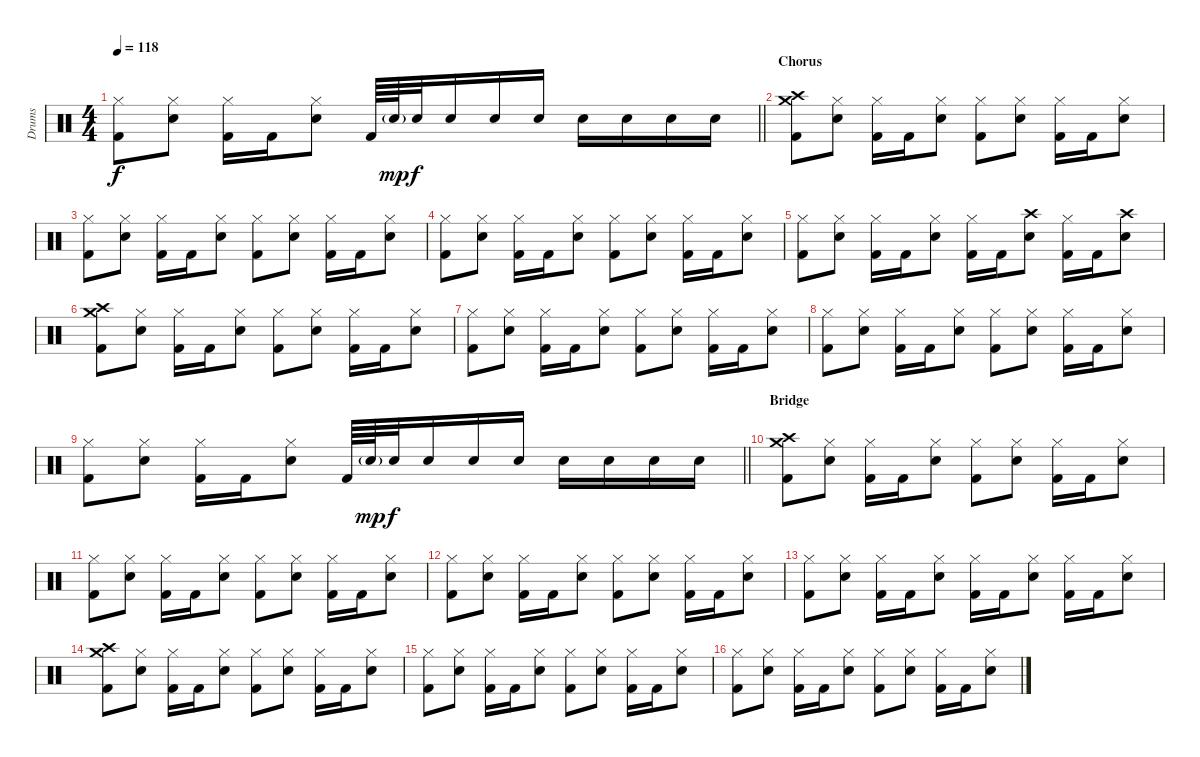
\track ("Drums" "Drums") {instrument percussion}
\staff {score}
\articulation defaults
\ts (4 4)
\tempo 118
\clef neutral
\barLineRight lightlight
\ks c
("Hi-Hat (closed)" "Kick (hit) 2").8{dy f} ("Hi-Hat (closed)" "Electric Snare (hit)").8 ("Hi-Hat (closed)" "Kick (hit) 2").16 "Kick (hit) 2".16 ("Hi-Hat (closed)" "Electric Snare (hit)").8 "Kick (hit) 2".64 "Electric Snare (hit)"{g}.64{dy mp} "Electric Snare (hit)".32{dy f} "Electric Snare (hit)".16 "Electric Snare (hit)".16 "Electric Snare (hit)".16 "Electric Snare (hit)".16 "Electric Snare (hit)".16 "Electric Snare (hit)".16 "Electric Snare (hit)".16 |
\section ("" "Chorus")
("Crash medium (hit)" "Crash high (hit)" "Kick (hit) 2").8 ("Hi-Hat (closed)" "Electric Snare (hit)").8 ("Hi-Hat (closed)" "Kick (hit) 2").16 "Kick (hit) 2".16 ("Hi-Hat (closed)" "Electric Snare (hit)").8 ("Hi-Hat (closed)" "Kick (hit) 2").8 ("Hi-Hat (closed)" "Electric Snare (hit)").8 ("Hi-Hat (closed)" "Kick (hit) 2").16 "Kick (hit) 2".16 ("Hi-Hat (closed)" "Electric Snare (hit)").8 |
("Hi-Hat (closed)" "Kick (hit) 2").8 ("Hi-Hat (closed)" "Electric Snare (hit)").8 ("Hi-Hat (closed)" "Kick (hit) 2").16 "Kick (hit) 2".16 ("Hi-Hat (closed)" "Electric Snare (hit)").8 ("Hi-Hat (closed)" "Kick (hit) 2").8 ("Hi-Hat (closed)" "Electric Snare (hit)").8 ("Hi-Hat (closed)" "Kick (hit) 2").16 "Kick (hit) 2".16 ("Hi-Hat (closed)" "Electric Snare (hit)").8 |
("Hi-Hat (closed)" "Kick (hit) 2").8 ("Hi-Hat (closed)" "Electric Snare (hit)").8 ("Hi-Hat (closed)" "Kick (hit) 2").16 "Kick (hit) 2".16 ("Hi-Hat (closed)" "Electric Snare (hit)").8 ("Hi-Hat (closed)" "Kick (hit) 2").8 ("Hi-Hat (closed)" "Electric Snare (hit)").8 ("Hi-Hat (closed)" "Kick (hit) 2").16 "Kick (hit) 2".16 ("Hi-Hat (closed)" "Electric Snare (hit)").8 |
("Hi-Hat (closed)" "Kick (hit) 2").8 ("Hi-Hat (closed)" "Electric Snare (hit)").8 ("Hi-Hat (closed)" "Kick (hit) 2").16 "Kick (hit) 2".16 ("Hi-Hat (closed)" "Electric Snare (hit)").8 ("Hi-Hat (closed)" "Kick (hit) 2").16 "Kick (hit) 2".16 ("Crash high (hit)" "Electric Snare (hit)").8 ("Hi-Hat (closed)" "Kick (hit) 2").16 "Kick (hit) 2".16 ("Crash high (hit)" "Electric Snare (hit)").8 |
("Crash medium (hit)" "Crash high (hit)" "Kick (hit) 2").8 ("Hi-Hat (closed)" "Electric Snare (hit)").8 ("Hi-Hat (closed)" "Kick (hit) 2").16 "Kick (hit) 2".16 ("Hi-Hat (closed)" "Electric Snare (hit)").8 ("Hi-Hat (closed)" "Kick (hit) 2").8 ("Hi-Hat (closed)" "Electric Snare (hit)").8 ("Hi-Hat (closed)" "Kick (hit) 2").16 "Kick (hit) 2".16 ("Hi-Hat (closed)" "Electric Snare (hit)").8 |
("Hi-Hat (closed)" "Kick (hit) 2").8 ("Hi-Hat (closed)" "Electric Snare (hit)").8 ("Hi-Hat (closed)" "Kick (hit) 2").16 "Kick (hit) 2".16 ("Hi-Hat (closed)" "Electric Snare (hit)").8 ("Hi-Hat (closed)" "Kick (hit) 2").8 ("Hi-Hat (closed)" "Electric Snare (hit)").8 ("Hi-Hat (closed)" "Kick (hit) 2").16 "Kick (hit) 2".16 ("Hi-Hat (closed)" "Electric Snare (hit)").8 |
("Hi-Hat (closed)" "Kick (hit) 2").8 ("Hi-Hat (closed)" "Electric Snare (hit)").8 ("Hi-Hat (closed)" "Kick (hit) 2").16 "Kick (hit) 2".16 ("Hi-Hat (closed)" "Electric Snare (hit)").8 ("Hi-Hat (closed)" "Kick (hit) 2").8 ("Hi-Hat (closed)" "Electric Snare (hit)").8 ("Hi-Hat (closed)" "Kick (hit) 2").16 "Kick (hit) 2".16 ("Hi-Hat (closed)" "Electric Snare (hit)").8 |
\barLineRight lightlight
("Hi-Hat (closed)" "Kick (hit) 2").8 ("Hi-Hat (closed)" "Electric Snare (hit)").8 ("Hi-Hat (closed)" "Kick (hit) 2").16 "Kick (hit) 2".16 ("Hi-Hat (closed)" "Electric Snare (hit)").8 "Kick (hit) 2".64 "Electric Snare (hit)"{g}.64{dy mp} "Electric Snare (hit)".32{dy f} "Electric Snare (hit)".16 "Electric Snare (hit)".16 "Electric Snare (hit)".16 "Electric Snare (hit)".16 "Electric Snare (hit)".16 "Electric Snare (hit)".16 "Electric Snare (hit)".16 |
\section ("" "Bridge")
("Crash medium (hit)" "Crash high (hit)" "Kick (hit) 2").8 ("Hi-Hat (closed)" "Electric Snare (hit)").8 ("Hi-Hat (closed)" "Kick (hit) 2").16 "Kick (hit) 2".16 ("Hi-Hat (closed)" "Electric Snare (hit)").8 ("Hi-Hat (closed)" "Kick (hit) 2").8 ("Hi-Hat (closed)" "Electric Snare (hit)").8 ("Hi-Hat (closed)" "Kick (hit) 2").16 "Kick (hit) 2".16 ("Hi-Hat (closed)" "Electric Snare (hit)").8 |
("Hi-Hat (closed)" "Kick (hit) 2").8 ("Hi-Hat (closed)" "Electric Snare (hit)").8 ("Hi-Hat (closed)" "Kick (hit) 2").16 "Kick (hit) 2".16 ("Hi-Hat (closed)" "Electric Snare (hit)").8 ("Hi-Hat (closed)" "Kick (hit) 2").8 ("Hi-Hat (closed)" "Electric Snare (hit)").8 ("Hi-Hat (closed)" "Kick (hit) 2").16 "Kick (hit) 2".16 ("Hi-Hat (closed)" "Electric Snare (hit)").8 |
("Hi-Hat (closed)" "Kick (hit) 2").8 ("Hi-Hat (closed)" "Electric Snare (hit)").8 ("Hi-Hat (closed)" "Kick (hit) 2").16 "Kick (hit) 2".16 ("Hi-Hat (closed)" "Electric Snare (hit)").8 ("Hi-Hat (closed)" "Kick (hit) 2").8 ("Hi-Hat (closed)" "Electric Snare (hit)").8 ("Hi-Hat (closed)" "Kick (hit) 2").16 "Kick (hit) 2".16 ("Hi-Hat (closed)" "Electric Snare (hit)").8 |
("Hi-Hat (closed)" "Kick (hit) 2").8 ("Hi-Hat (closed)" "Electric Snare (hit)").8 ("Hi-Hat (closed)" "Kick (hit) 2").16 "Kick (hit) 2".16 ("Hi-Hat (closed)" "Electric Snare (hit)").8 ("Hi-Hat (closed)" "Kick (hit) 2").16 "Kick (hit) 2".16 ("Hi-Hat (closed)" "Electric Snare (hit)").8 ("Hi-Hat (closed)" "Kick (hit) 2").16 "Kick (hit) 2".16 ("Hi-Hat (closed)" "Electric Snare (hit)").8 |
("Crash medium (hit)" "Crash high (hit)" "Kick (hit) 2").8 ("Hi-Hat (closed)" "Electric Snare (hit)").8 ("Hi-Hat (closed)" "Kick (hit) 2").16 "Kick (hit) 2".16 ("Hi-Hat (closed)" "Electric Snare (hit)").8 ("Hi-Hat (closed)" "Kick (hit) 2").8 ("Hi-Hat (closed)" "Electric Snare (hit)").8 ("Hi-Hat (closed)" "Kick (hit) 2").16 "Kick (hit) 2".16 ("Hi-Hat (closed)" "Electric Snare (hit)").8 |
("Hi-Hat (closed)" "Kick (hit) 2").8 ("Hi-Hat (closed)" "Electric Snare (hit)").8 ("Hi-Hat (closed)" "Kick (hit) 2").16 "Kick (hit) 2".16 ("Hi-Hat (closed)" "Electric Snare (hit)").8 ("Hi-Hat (closed)" "Kick (hit) 2").8 ("Hi-Hat (closed)" "Electric Snare (hit)").8 ("Hi-Hat (closed)" "Kick (hit) 2").16 "Kick (hit) 2".16 ("Hi-Hat (closed)" "Electric Snare (hit)").8 |
("Hi-Hat (closed)" "Kick (hit) 2").8 ("Hi-Hat (closed)" "Electric Snare (hit)").8 ("Hi-Hat (closed)" "Kick (hit) 2").16 "Kick (hit) 2".16 ("Hi-Hat (closed)" "Electric Snare (hit)").8 ("Hi-Hat (closed)" "Kick (hit) 2").8 ("Hi-Hat (closed)" "Electric Snare (hit)").8 ("Hi-Hat (closed)" "Kick (hit) 2").16 "Kick (hit) 2".16 ("Hi-Hat (closed)" "Electric Snare (hit)").8
